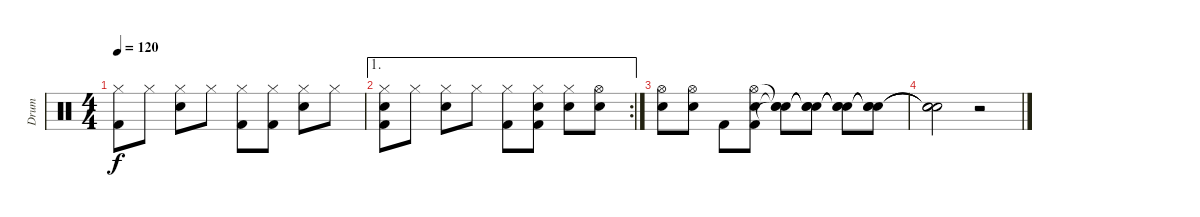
\track ("Drum" "Drum") {instrument percussion}
\staff {score}
\articulation defaults
\ts (4 4)
\tempo 120
\clef neutral
\ks c
("Hi-Hat (closed)" "Kick (hit) 2").8{dy f} "Hi-Hat (closed)".8 ("Hi-Hat (closed)" "Snare (hit) 2").8 "Hi-Hat (closed)".8 ("Hi-Hat (closed)" "Kick (hit) 2").8 ("Hi-Hat (closed)" "Kick (hit) 2").8 ("Hi-Hat (closed)" "Snare (hit) 2").8 "Hi-Hat (closed)".8 |
\ae 1
\rc 2
("Hi-Hat (closed)" "Snare (hit) 2" "Kick (hit) 2").8 "Hi-Hat (closed)".8 ("Hi-Hat (closed)" "Snare (hit) 2").8 "Hi-Hat (closed)".8 ("Hi-Hat (closed)" "Kick (hit) 2").8 ("Hi-Hat (closed)" "Snare (hit) 2" "Kick (hit) 2").8 ("Hi-Hat (closed)" "Snare (hit) 2").8 ("Hi-Hat (open)" "Snare (hit) 2").8 |
("Hi-Hat (open)" "Snare (hit) 2").8 ("Hi-Hat (open)" "Snare (hit) 2").8 "Kick (hit) 2".8 ("Hi-Hat (open)" "Snare (hit) 2" "Kick (hit) 2").8 ("Snare (hit)"{t} "Snare (hit)"{t} "Snare (hit)"{t}).8 ("Snare (hit)"{t} "Snare (hit)"{t} "Snare (hit)"{t}).8 ("Snare (hit)"{t} "Snare (hit)"{t} "Snare (hit)"{t}).8 ("Snare (hit)"{t} "Snare (hit)"{t} "Snare (hit)"{t}).8 |
("Snare (hit)"{t} "Snare (hit)"{t} "Snare (hit)"{t}).2 r.2
